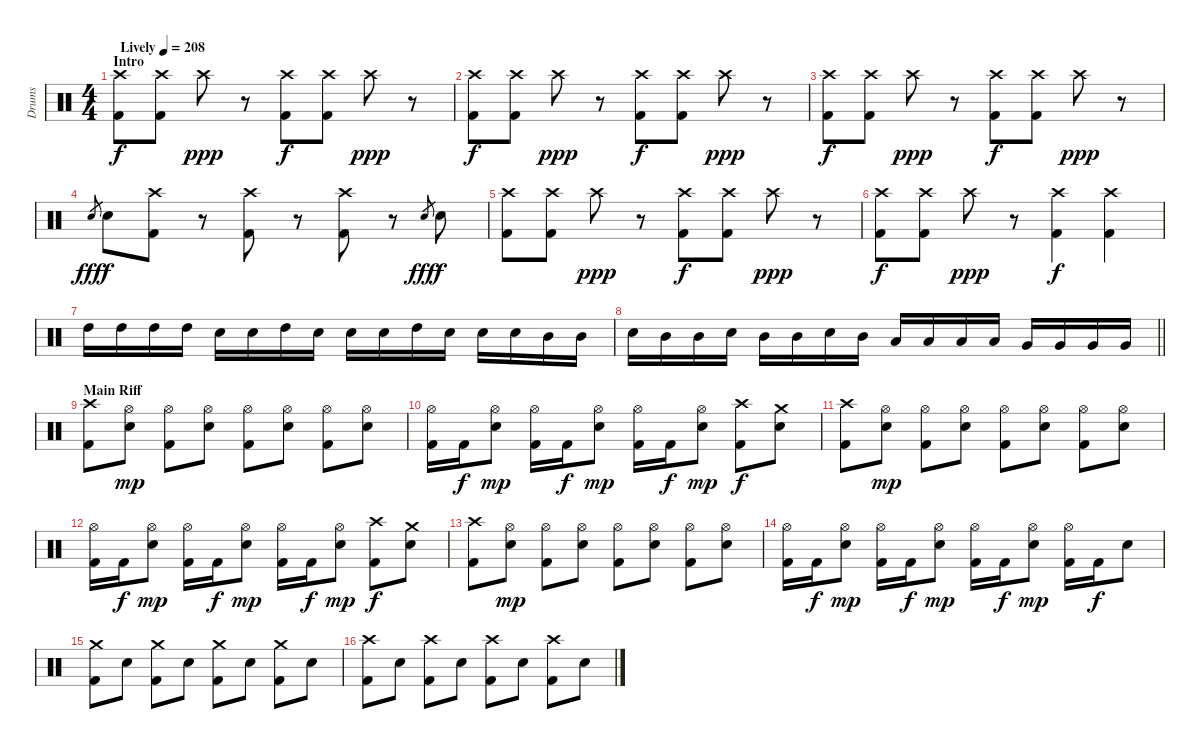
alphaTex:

\track ("Drums" "Drums") {instrument percussion}
\staff {score}
\articulation defaults
\ts (4 4)
\section ("" "Intro")
\tempo (208 "Lively")
\clef neutral
\ks c
("Crash high (hit)" "Kick (hit) 2").8{dy f} ("Crash high (hit)" "Kick (hit) 2").8 "Crash high (hit)".8{dy ppp} r.8 ("Crash high (hit)" "Kick (hit) 2").8{dy f} ("Crash high (hit)" "Kick (hit) 2").8 "Crash high (hit)".8{dy ppp} r.8 |
("Crash high (hit)" "Kick (hit) 2").8{dy f} ("Crash high (hit)" "Kick (hit) 2").8 "Crash high (hit)".8{dy ppp} r.8 ("Crash high (hit)" "Kick (hit) 2").8{dy f} ("Crash high (hit)" "Kick (hit) 2").8 "Crash high (hit)".8{dy ppp} r.8 |
("Crash high (hit)" "Kick (hit) 2").8{dy f} ("Crash high (hit)" "Kick (hit) 2").8 "Crash high (hit)".8{dy ppp} r.8 ("Crash high (hit)" "Kick (hit) 2").8{dy f} ("Crash high (hit)" "Kick (hit) 2").8 "Crash high (hit)".8{dy ppp} r.8 |
"Electric Snare (hit)".8{gr dy fff} "Electric Snare (hit)".8{dy f} ("Crash high (hit)" "Kick (hit) 2").8 r.8 ("Crash high (hit)" "Kick (hit) 2").8 r.8 ("Crash high (hit)" "Kick (hit) 2").8 r.8 "Electric Snare (hit)".8{gr dy fff} "Electric Snare (hit)".8{dy f} |
("Crash high (hit)" "Kick (hit) 2").8 ("Crash high (hit)" "Kick (hit) 2").8 "Crash high (hit)".8{dy ppp} r.8 ("Crash high (hit)" "Kick (hit) 2").8{dy f} ("Crash high (hit)" "Kick (hit) 2").8 "Crash high (hit)".8{dy ppp} r.8 |
("Crash high (hit)" "Kick (hit) 2").8{dy f} ("Crash high (hit)" "Kick (hit) 2").8 "Crash high (hit)".8{dy ppp} r.8 ("Crash high (hit)" "Kick (hit) 2").4{dy f} ("Crash high (hit)" "Kick (hit) 2").4 |
"High Tom (hit)".16 "High Tom (hit)".16 "High Tom (hit)".16 "High Tom (hit)".16 "Electric Snare (hit)".16 "Electric Snare (hit)".16 "High Tom (hit)".16 "Electric Snare (hit)".16 "Electric Snare (hit)".16 "Electric Snare (hit)".16 "High Tom (hit)".16 "Electric Snare (hit)".16 "Electric Snare (hit)".16 "Electric Snare (hit)".16 "Mid Tom (hit)".16 "Mid Tom (hit)".16 |
\barLineRight lightlight "Electric Snare (hit)".16 "Mid Tom (hit)".16 "Mid Tom (hit)".16 "Electric Snare (hit)".16 "Mid Tom (hit)".16 "Mid Tom (hit)".16 "Electric Snare (hit)".16 "Mid Tom (hit)".16 "Low Tom (hit)".16 "Low Tom (hit)".16 "Low Tom (hit)".16 "Low Tom (hit)".16 "Very Low Tom (hit)".16 "Very Low Tom (hit)".16 "Very Low Tom (hit)".16 "Very Low Tom (hit)".16
|
\section ("" "Main Riff")
("Crash high (hit)" "Kick (hit) 2").8 ("Hi-Hat (open)" "Electric Snare (hit)").8{dy mp} ("Hi-Hat (open)" "Kick (hit) 2").8 ("Hi-Hat (open)" "Electric Snare (hit)").8 ("Hi-Hat (open)" "Kick (hit) 2").8 ("Hi-Hat (open)" "Electric Snare (hit)").8 ("Hi-Hat (open)" "Kick (hit) 2").8 ("Hi-Hat (open)" "Electric Snare (hit)").8 |
("Hi-Hat (open)" "Kick (hit) 2").16 "Kick (hit) 2".16{dy f} ("Hi-Hat (open)" "Electric Snare (hit)").8{dy mp} ("Hi-Hat (open)" "Kick (hit) 2").16 "Kick (hit) 2".16{dy f} ("Hi-Hat (open)" "Electric Snare (hit)").8{dy mp} ("Hi-Hat (open)" "Kick (hit) 2").16 "Kick (hit) 2".16{dy f} ("Hi-Hat (open)" "Electric Snare (hit)").8{dy mp} ("Crash high (hit)" "Kick (hit) 2").8{dy f} ("Crash medium (hit)" "Electric Snare (hit)").8 |
("Crash high (hit)" "Kick (hit) 2").8 ("Hi-Hat (open)" "Electric Snare (hit)").8{dy mp} ("Hi-Hat (open)" "Kick (hit) 2").8 ("Hi-Hat (open)" "Electric Snare (hit)").8 ("Hi-Hat (open)" "Kick (hit) 2").8 ("Hi-Hat (open)" "Electric Snare (hit)").8 ("Hi-Hat (open)" "Kick (hit) 2").8 ("Hi-Hat (open)" "Electric Snare (hit)").8 |
("Hi-Hat (open)" "Kick (hit) 2").16 "Kick (hit) 2".16{dy f} ("Hi-Hat (open)" "Electric Snare (hit)").8{dy mp} ("Hi-Hat (open)" "Kick (hit) 2").16 "Kick (hit) 2".16{dy f} ("Hi-Hat (open)" "Electric Snare (hit)").8{dy mp} ("Hi-Hat (open)" "Kick (hit) 2").16 "Kick (hit) 2".16{dy f} ("Hi-Hat (open)" "Electric Snare (hit)").8{dy mp} ("Crash high (hit)" "Kick (hit) 2").8{dy f} ("Crash medium (hit)" "Electric Snare (hit)").8 |
("Crash high (hit)" "Kick (hit) 2").8 ("Hi-Hat (open)" "Electric Snare (hit)").8{dy mp} ("Hi-Hat (open)" "Kick (hit) 2").8 ("Hi-Hat (open)" "Electric Snare (hit)").8 ("Hi-Hat (open)" "Kick (hit) 2").8 ("Hi-Hat (open)" "Electric Snare (hit)").8 ("Hi-Hat (open)" "Kick (hit) 2").8 ("Hi-Hat (open)" "Electric Snare (hit)").8 |
("Hi-Hat (open)" "Kick (hit) 2").16 "Kick (hit) 2".16{dy f} ("Hi-Hat (open)" "Electric Snare (hit)").8{dy mp} ("Hi-Hat (open)" "Kick (hit) 2").16 "Kick (hit) 2".16{dy f} ("Hi-Hat (open)" "Electric Snare (hit)").8{dy mp} ("Hi-Hat (open)" "Kick (hit) 2").16 "Kick (hit) 2".16{dy f} ("Hi-Hat (open)" "Electric Snare (hit)").8{dy mp} ("Hi-Hat (open)" "Kick (hit) 2").16 "Kick (hit) 2".16{dy f} "Electric Snare (hit)".8 |
("Crash medium (hit)" "Kick (hit) 2").8 "Electric Snare (hit)".8 ("Crash medium (hit)" "Kick (hit) 2").8 "Electric Snare (hit)".8 ("Crash medium (hit)" "Kick (hit) 2").8 "Electric Snare (hit)".8 ("Crash medium (hit)" "Kick (hit) 2").8 "Electric Snare (hit)".8 |
("Crash high (hit)" "Kick (hit) 2").8 "Electric Snare (hit)".8 ("Crash high (hit)" "Kick (hit) 2").8 "Electric Snare (hit)".8 ("Crash high (hit)" "Kick (hit) 2").8 "Electric Snare (hit)".8 ("Crash high (hit)" "Kick (hit) 2").8 "Electric Snare (hit)".8
